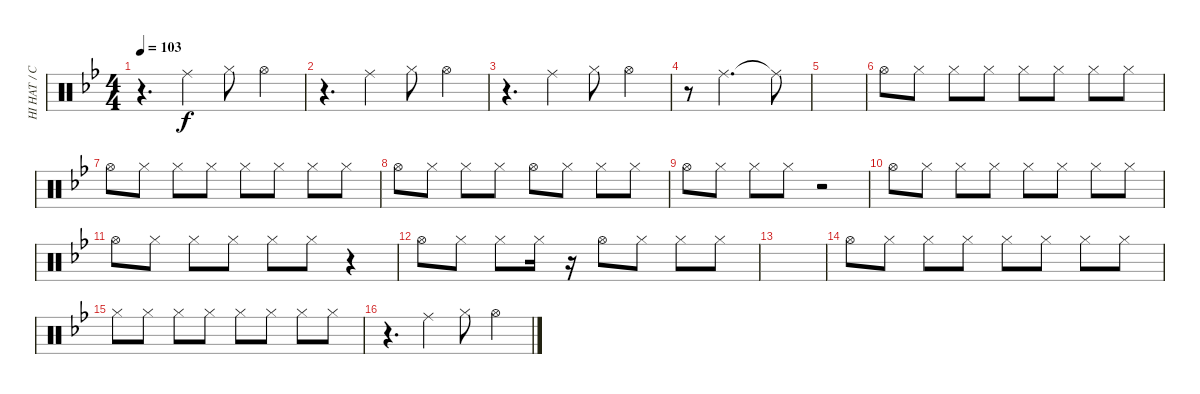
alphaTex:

\track ("HI HAT / CYMBALS" "HI HAT / C") {instrument percussion}
\staff {score}
\articulation defaults
\ts (4 4)
\tempo 103
\clef neutral
\ks bb
r.4{d dy f} "Ride (middle)".4 "Hi-Hat (closed)".8 "Hi-Hat (open)".4 |
r.4{d} "Ride (middle)".4 "Hi-Hat (closed)".8 "Hi-Hat (open)".4 |
r.4{d} "Ride (middle)".4 "Hi-Hat (closed)".8 "Hi-Hat (open)".4 |
r.8 "Ride (middle)".2{d} "Ride (middle)"{t}.8 |
|
"Hi-Hat (open)".8 "Hi-Hat (closed)".8 "Hi-Hat (closed)".8 "Hi-Hat (closed)".8 "Hi-Hat (closed)".8 "Hi-Hat (closed)".8 "Hi-Hat (closed)".8 "Hi-Hat (closed)".8 |
"Hi-Hat (open)".8 "Hi-Hat (closed)".8 "Hi-Hat (closed)".8 "Hi-Hat (closed)".8 "Hi-Hat (closed)".8 "Hi-Hat (closed)".8 "Hi-Hat (closed)".8 "Hi-Hat (closed)".8 |
"Hi-Hat (open)".8 "Hi-Hat (closed)".8 "Hi-Hat (closed)".8 "Hi-Hat (closed)".8 "Hi-Hat (open)".8 "Hi-Hat (closed)".8 "Hi-Hat (closed)".8 "Hi-Hat (closed)".8 |
"Hi-Hat (open)".8 "Hi-Hat (closed)".8 "Hi-Hat (closed)".8 "Hi-Hat (closed)".8 r.2 |
"Hi-Hat (open)".8 "Hi-Hat (closed)".8 "Hi-Hat (closed)".8 "Hi-Hat (closed)".8 "Hi-Hat (closed)".8 "Hi-Hat (closed)".8 "Hi-Hat (closed)".8 "Hi-Hat (closed)".8 |
"Hi-Hat (open)".8 "Hi-Hat (closed)".8 "Hi-Hat (closed)".8 "Hi-Hat (closed)".8 "Hi-Hat (closed)".8 "Hi-Hat (closed)".8 r.4 |
"Hi-Hat (open)".8 "Hi-Hat (closed)".8 "Hi-Hat (closed)".8 "Hi-Hat (closed)".16 r.16 "Hi-Hat (open)".8 "Hi-Hat (closed)".8 "Hi-Hat (closed)".8 "Hi-Hat (closed)".8 |
|
"Hi-Hat (open)".8 "Hi-Hat (closed)".8 "Hi-Hat (closed)".8 "Hi-Hat (closed)".8 "Hi-Hat (closed)".8 "Hi-Hat (closed)".8 "Hi-Hat (closed)".8 "Hi-Hat (closed)".8 |
"Hi-Hat (closed)".8 "Hi-Hat (closed)".8 "Hi-Hat (closed)".8 "Hi-Hat (closed)".8 "Hi-Hat (closed)".8 "Hi-Hat (closed)".8 "Hi-Hat (closed)".8 "Hi-Hat (closed)".8 |
r.4{d} "Ride (middle)".4 "Hi-Hat (closed)".8 "Hi-Hat (open)".4
